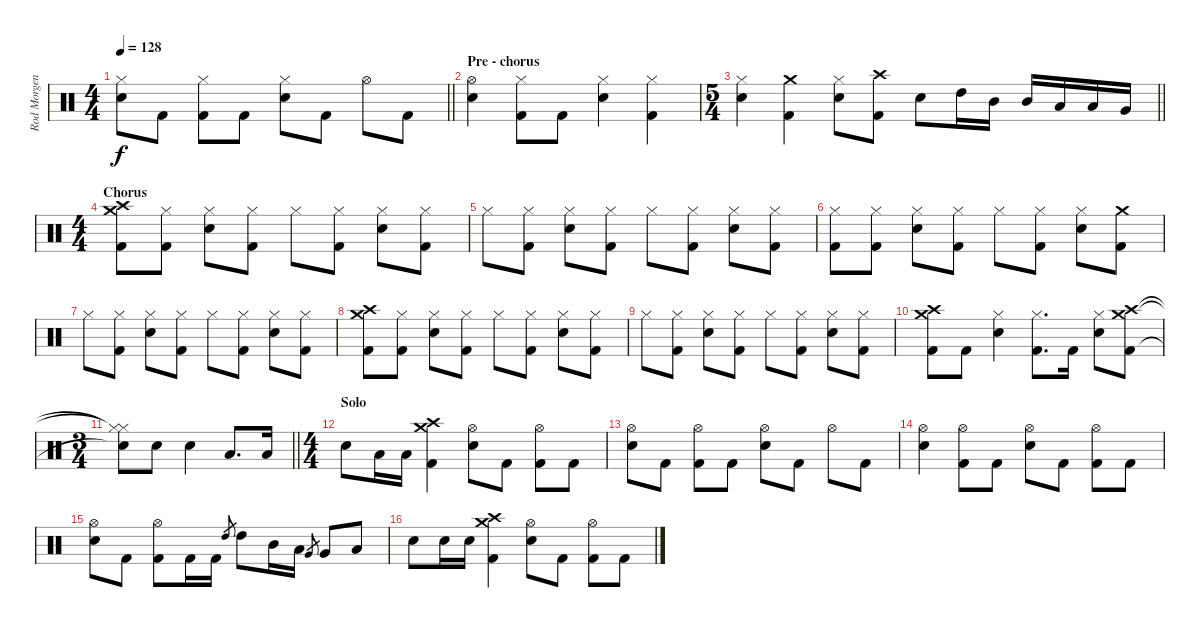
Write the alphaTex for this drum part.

\track ("Rod Morgenstein" "Rod Morgen") {instrument percussion}
\staff {score}
\articulation defaults
\ts (4 4)
\tempo 128
\clef neutral
\barLineRight lightlight
\ks c
("Hi-Hat (closed)" "Snare (hit) 2").8{dy f} "Kick (hit) 2".8 ("Hi-Hat (closed)" "Kick (hit) 2").8 "Kick (hit) 2".8 ("Hi-Hat (closed)" "Snare (hit) 2").8 "Kick (hit) 2".8 "Hi-Hat (open)".8 "Kick (hit) 2".8 |
\section ("" "Pre - chorus")
("Hi-Hat (open)" "Snare (hit) 2").4 ("Hi-Hat (closed)" "Kick (hit) 2").8 "Kick (hit) 2".8 ("Hi-Hat (closed)" "Snare (hit) 2").4 ("Hi-Hat (closed)" "Kick (hit) 2").4 |
\ts (5 4)
\barLineRight lightlight
("Hi-Hat (closed)" "Snare (hit) 2").4 ("Crash medium (hit)" "Kick (hit) 2").4 ("Hi-Hat (closed)" "Snare (hit) 2").8 ("Crash high (hit)" "Kick (hit) 2").8 "Snare (hit) 2".8 "High Tom (hit)".16 "Mid Tom (hit)".16 "Mid Tom (hit)".16 "Low Tom (hit)".16 "Low Tom (hit)".16 "Very Low Tom (hit)".16 |
\ts (4 4)
\section ("" "Chorus")
("Crash medium (hit)" "Crash high (hit)" "Kick (hit) 2").8 ("Hi-Hat (closed)" "Kick (hit) 2").8 ("Hi-Hat (closed)" "Snare (hit) 2").8 ("Hi-Hat (closed)" "Kick (hit) 2").8 "Hi-Hat (closed)".8 ("Hi-Hat (closed)" "Kick (hit) 2").8 ("Hi-Hat (closed)" "Snare (hit) 2").8 ("Hi-Hat (closed)" "Kick (hit) 2").8 |
"Hi-Hat (closed)".8 ("Hi-Hat (closed)" "Kick (hit) 2").8 ("Hi-Hat (closed)" "Snare (hit) 2").8 ("Hi-Hat (closed)" "Kick (hit) 2").8 "Hi-Hat (closed)".8 ("Hi-Hat (closed)" "Kick (hit) 2").8 ("Hi-Hat (closed)" "Snare (hit) 2").8 ("Hi-Hat (closed)" "Kick (hit) 2").8 |
("Hi-Hat (closed)" "Kick (hit) 2").8 ("Hi-Hat (closed)" "Kick (hit) 2").8 ("Hi-Hat (closed)" "Snare (hit) 2").8 ("Hi-Hat (closed)" "Kick (hit) 2").8 "Hi-Hat (closed)".8 ("Hi-Hat (closed)" "Kick (hit) 2").8 ("Hi-Hat (closed)" "Snare (hit) 2").8 ("Crash medium (hit)" "Kick (hit) 2").8 |
"Hi-Hat (closed)".8 ("Hi-Hat (closed)" "Kick (hit) 2").8 ("Hi-Hat (closed)" "Snare (hit) 2").8 ("Hi-Hat (closed)" "Kick (hit) 2").8 "Hi-Hat (closed)".8 ("Hi-Hat (closed)" "Kick (hit) 2").8 ("Hi-Hat (closed)" "Snare (hit) 2").8 ("Hi-Hat (closed)" "Kick (hit) 2").8 |
("Crash medium (hit)" "Crash high (hit)" "Kick (hit) 2").8 ("Hi-Hat (closed)" "Kick (hit) 2").8 ("Hi-Hat (closed)" "Snare (hit) 2").8 ("Hi-Hat (closed)" "Kick (hit) 2").8 "Hi-Hat (closed)".8 ("Hi-Hat (closed)" "Kick (hit) 2").8 ("Hi-Hat (closed)" "Snare (hit) 2").8 ("Hi-Hat (closed)" "Kick (hit) 2").8 |
"Hi-Hat (closed)".8 ("Hi-Hat (closed)" "Kick (hit) 2").8 ("Hi-Hat (closed)" "Snare (hit) 2").8 ("Hi-Hat (closed)" "Kick (hit) 2").8 "Hi-Hat (closed)".8 ("Hi-Hat (closed)" "Kick (hit) 2").8 ("Hi-Hat (closed)" "Snare (hit) 2").8 ("Hi-Hat (closed)" "Kick (hit) 2").8 |
("Crash medium (hit)" "Crash high (hit)" "Kick (hit) 2").8 "Kick (hit) 2".8 ("Hi-Hat (closed)" "Snare (hit) 2").4 ("Hi-Hat (closed)" "Kick (hit) 2").8{d} "Kick (hit) 2".16 ("Hi-Hat (closed)" "Snare (hit) 2").8 ("Crash medium (hit)" "Crash high (hit)" "Kick (hit) 2").8 |
\ts (3 4)
\barLineRight lightlight
("Hi-Hat (closed)"{t} "Hi-Hat (closed)"{t} "Snare (hit)"{t}).8 "Snare (hit) 2".8 "Snare (hit) 2".4 "Low Floor Tom (hit)".8{d} "Low Floor Tom (hit)".16 |
\ts (4 4)
\section ("" "Solo")
"Snare (hit) 2".8 "Low Floor Tom (hit)".16 "Low Floor Tom (hit)".16 ("Crash medium (hit)" "Crash high (hit)" "Kick (hit) 2").4 ("Hi-Hat (open)" "Snare (hit) 2").8 "Kick (hit) 2".8 ("Hi-Hat (open)" "Kick (hit) 2").8 "Kick (hit) 2".8 |
("Hi-Hat (open)" "Snare (hit) 2").8 "Kick (hit) 2".8 ("Hi-Hat (open)" "Kick (hit) 2").8 "Kick (hit) 2".8 ("Hi-Hat (open)" "Snare (hit) 2").8 "Kick (hit) 2".8 "Hi-Hat (open)".8 "Kick (hit) 2".8 |
("Hi-Hat (open)" "Snare (hit) 2").4 ("Hi-Hat (open)" "Kick (hit) 2").8 "Kick (hit) 2".8 ("Hi-Hat (open)" "Snare (hit) 2").8 "Kick (hit) 2".8 ("Hi-Hat (open)" "Kick (hit) 2").8 "Kick (hit) 2".8 |
("Hi-Hat (open)" "Snare (hit) 2").8 "Kick (hit) 2".8 ("Hi-Hat (open)" "Kick (hit) 2").8 "Kick (hit) 2".16 "Kick (hit) 2".16 "High Tom (hit)".8{gr} "High Tom (hit)".8 "Mid Tom (hit)".16 "Low Tom (hit)".16 "Very Low Tom (hit)".8{gr} "Very Low Tom (hit)".8 "Low Floor Tom (hit)".8 |
"Snare (hit) 2".8 "Snare (hit) 2".16 "Snare (hit) 2".16 ("Crash medium (hit)" "Crash high (hit)" "Kick (hit) 2").4 ("Hi-Hat (open)" "Snare (hit) 2").8 "Kick (hit) 2".8 ("Hi-Hat (open)" "Kick (hit) 2").8 "Kick (hit) 2".8
